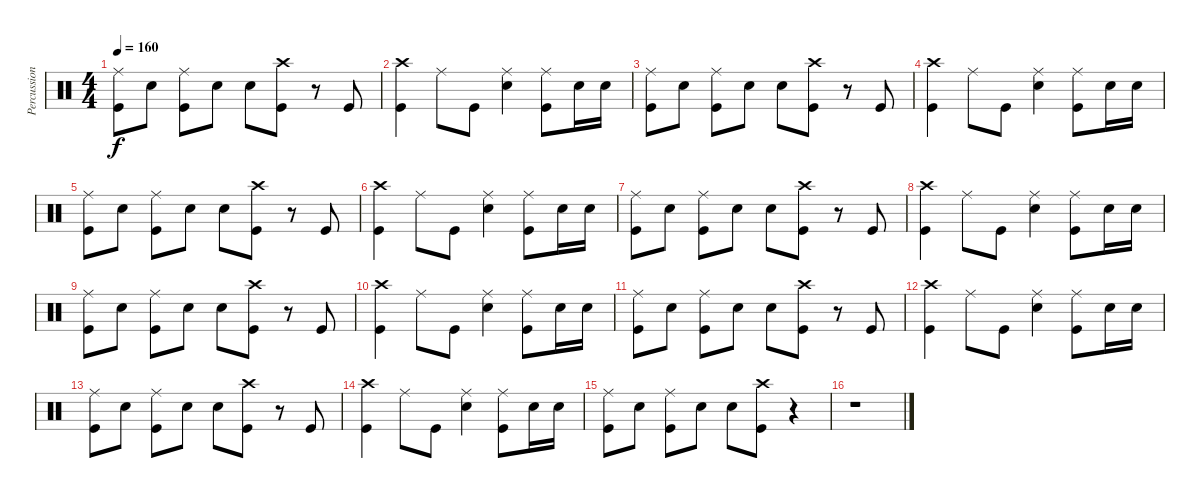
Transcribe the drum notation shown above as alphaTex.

\track ("Percussion" "Percussion") {instrument percussion}
\staff {score}
\articulation defaults
\ts (4 4)
\tempo 160
\clef neutral
\ks c
("Ride (middle)" "Kick (hit)").8{dy f} "Snare (hit) 2".8 ("Ride (middle)" "Kick (hit)").8 "Snare (hit) 2".8 "Snare (hit) 2".8 ("Crash high (hit)" "Kick (hit)").8 r.8 "Kick (hit)".8 |
("Crash high (hit)" "Kick (hit)").4 "Ride (middle)".8 "Kick (hit)".8 ("Ride (middle)" "Snare (hit) 2").4 ("Ride (middle)" "Kick (hit)").8 "Snare (hit) 2".16 "Snare (hit) 2".16 |
("Ride (middle)" "Kick (hit)").8 "Snare (hit) 2".8 ("Ride (middle)" "Kick (hit)").8 "Snare (hit) 2".8 "Snare (hit) 2".8 ("Crash high (hit)" "Kick (hit)").8 r.8 "Kick (hit)".8 |
("Crash high (hit)" "Kick (hit)").4 "Ride (middle)".8 "Kick (hit)".8 ("Ride (middle)" "Snare (hit) 2").4 ("Ride (middle)" "Kick (hit)").8 "Snare (hit) 2".16 "Snare (hit) 2".16 |
("Ride (middle)" "Kick (hit)").8 "Snare (hit) 2".8 ("Ride (middle)" "Kick (hit)").8 "Snare (hit) 2".8 "Snare (hit) 2".8 ("Crash high (hit)" "Kick (hit)").8 r.8 "Kick (hit)".8 |
("Crash high (hit)" "Kick (hit)").4 "Ride (middle)".8 "Kick (hit)".8 ("Ride (middle)" "Snare (hit) 2").4 ("Ride (middle)" "Kick (hit)").8 "Snare (hit) 2".16 "Snare (hit) 2".16 |
("Ride (middle)" "Kick (hit)").8 "Snare (hit) 2".8 ("Ride (middle)" "Kick (hit)").8 "Snare (hit) 2".8 "Snare (hit) 2".8 ("Crash high (hit)" "Kick (hit)").8 r.8 "Kick (hit)".8 |
("Crash high (hit)" "Kick (hit)").4 "Ride (middle)".8 "Kick (hit)".8 ("Ride (middle)" "Snare (hit) 2").4 ("Ride (middle)" "Kick (hit)").8 "Snare (hit) 2".16 "Snare (hit) 2".16 |
("Ride (middle)" "Kick (hit)").8 "Snare (hit) 2".8 ("Ride (middle)" "Kick (hit)").8 "Snare (hit) 2".8 "Snare (hit) 2".8 ("Crash high (hit)" "Kick (hit)").8 r.8 "Kick (hit)".8 |
("Crash high (hit)" "Kick (hit)").4 "Ride (middle)".8 "Kick (hit)".8 ("Ride (middle)" "Snare (hit) 2").4 ("Ride (middle)" "Kick (hit)").8 "Snare (hit) 2".16 "Snare (hit) 2".16 |
("Ride (middle)" "Kick (hit)").8 "Snare (hit) 2".8 ("Ride (middle)" "Kick (hit)").8 "Snare (hit) 2".8 "Snare (hit) 2".8 ("Crash high (hit)" "Kick (hit)").8 r.8 "Kick (hit)".8 |
("Crash high (hit)" "Kick (hit)").4 "Ride (middle)".8 "Kick (hit)".8 ("Ride (middle)" "Snare (hit) 2").4 ("Ride (middle)" "Kick (hit)").8 "Snare (hit) 2".16 "Snare (hit) 2".16 |
("Ride (middle)" "Kick (hit)").8 "Snare (hit) 2".8 ("Ride (middle)" "Kick (hit)").8 "Snare (hit) 2".8 "Snare (hit) 2".8 ("Crash high (hit)" "Kick (hit)").8 r.8 "Kick (hit)".8 |
("Crash high (hit)" "Kick (hit)").4 "Ride (middle)".8 "Kick (hit)".8 ("Ride (middle)" "Snare (hit) 2").4 ("Ride (middle)" "Kick (hit)").8 "Snare (hit) 2".16 "Snare (hit) 2".16 |
("Ride (middle)" "Kick (hit)").8 "Snare (hit) 2".8 ("Ride (middle)" "Kick (hit)").8 "Snare (hit) 2".8 "Snare (hit) 2".8 ("Crash high (hit)" "Kick (hit)").8 r.4 |
r.1
